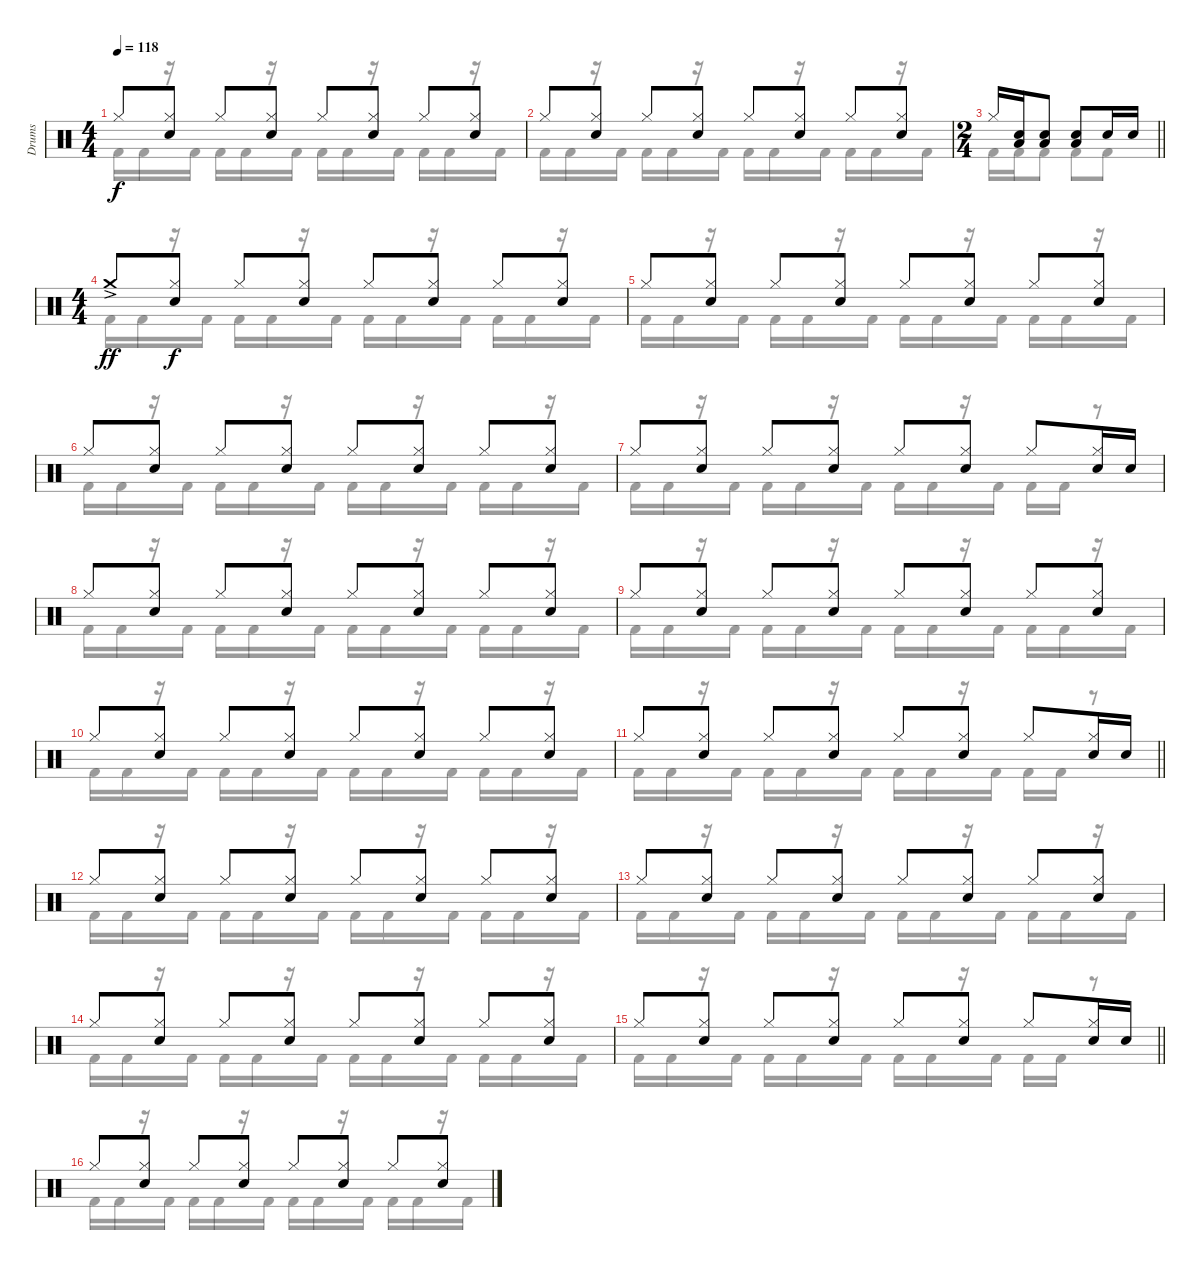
\track ("Drums" "Drums") {instrument percussion}
\staff {score}
\articulation defaults
\voice
\ts (4 4)
\tempo 118
\clef neutral
\ks c "Hi-Hat (closed)".8{dy f}
("Hi-Hat (closed)" "Snare (hit) 2").8 "Hi-Hat (closed)".8 ("Hi-Hat (closed)" "Snare (hit) 2").8 "Hi-Hat (closed)".8 ("Hi-Hat (closed)" "Snare (hit) 2").8 "Hi-Hat (closed)".8 ("Hi-Hat (closed)" "Snare (hit) 2").8 |
"Hi-Hat (closed)".8 ("Hi-Hat (closed)" "Snare (hit) 2").8 "Hi-Hat (closed)".8 ("Hi-Hat (closed)" "Snare (hit) 2").8 "Hi-Hat (closed)".8 ("Hi-Hat (closed)" "Snare (hit) 2").8 "Hi-Hat (closed)".8 ("Hi-Hat (closed)" "Snare (hit) 2").8 |
\ts (2 4)
\barLineRight lightlight "Hi-Hat (closed)".16
("Snare (hit) 2" "Low Floor Tom (hit)").16 ("Snare (hit) 2" "Low Floor Tom (hit)").8 ("Snare (hit) 2" "Low Floor Tom (hit)").8 "Snare (hit) 2".16 "Snare (hit) 2".16 |
\ts (4 4)
"Crash medium (hit)"{ac}.8{dy ff} ("Hi-Hat (closed)" "Snare (hit) 2").8{dy f} "Hi-Hat (closed)".8 ("Hi-Hat (closed)" "Snare (hit) 2").8 "Hi-Hat (closed)".8 ("Hi-Hat (closed)" "Snare (hit) 2").8 "Hi-Hat (closed)".8 ("Hi-Hat (closed)" "Snare (hit) 2").8 |
"Hi-Hat (closed)".8 ("Hi-Hat (closed)" "Snare (hit) 2").8 "Hi-Hat (closed)".8 ("Hi-Hat (closed)" "Snare (hit) 2").8 "Hi-Hat (closed)".8 ("Hi-Hat (closed)" "Snare (hit) 2").8 "Hi-Hat (closed)".8 ("Hi-Hat (closed)" "Snare (hit) 2").8 |
"Hi-Hat (closed)".8 ("Hi-Hat (closed)" "Snare (hit) 2").8 "Hi-Hat (closed)".8 ("Hi-Hat (closed)" "Snare (hit) 2").8 "Hi-Hat (closed)".8 ("Hi-Hat (closed)" "Snare (hit) 2").8 "Hi-Hat (closed)".8 ("Hi-Hat (closed)" "Snare (hit) 2").8 |
"Hi-Hat (closed)".8 ("Hi-Hat (closed)" "Snare (hit) 2").8 "Hi-Hat (closed)".8 ("Hi-Hat (closed)" "Snare (hit) 2").8 "Hi-Hat (closed)".8 ("Hi-Hat (closed)" "Snare (hit) 2").8 "Hi-Hat (closed)".8 ("Hi-Hat (closed)" "Snare (hit) 2").16 "Snare (hit) 2".16 |
"Hi-Hat (closed)".8 ("Hi-Hat (closed)" "Snare (hit) 2").8 "Hi-Hat (closed)".8 ("Hi-Hat (closed)" "Snare (hit) 2").8 "Hi-Hat (closed)".8 ("Hi-Hat (closed)" "Snare (hit) 2").8 "Hi-Hat (closed)".8 ("Hi-Hat (closed)" "Snare (hit) 2").8 |
"Hi-Hat (closed)".8 ("Hi-Hat (closed)" "Snare (hit) 2").8 "Hi-Hat (closed)".8 ("Hi-Hat (closed)" "Snare (hit) 2").8 "Hi-Hat (closed)".8 ("Hi-Hat (closed)" "Snare (hit) 2").8 "Hi-Hat (closed)".8 ("Hi-Hat (closed)" "Snare (hit) 2").8 |
"Hi-Hat (closed)".8 ("Hi-Hat (closed)" "Snare (hit) 2").8 "Hi-Hat (closed)".8 ("Hi-Hat (closed)" "Snare (hit) 2").8 "Hi-Hat (closed)".8 ("Hi-Hat (closed)" "Snare (hit) 2").8 "Hi-Hat (closed)".8 ("Hi-Hat (closed)" "Snare (hit) 2").8 |
\barLineRight lightlight "Hi-Hat (closed)".8
("Hi-Hat (closed)" "Snare (hit) 2").8 "Hi-Hat (closed)".8 ("Hi-Hat (closed)" "Snare (hit) 2").8 "Hi-Hat (closed)".8 ("Hi-Hat (closed)" "Snare (hit) 2").8 "Hi-Hat (closed)".8 ("Hi-Hat (closed)" "Snare (hit) 2").16 "Snare (hit) 2".16 |
"Hi-Hat (closed)".8 ("Hi-Hat (closed)" "Snare (hit) 2").8 "Hi-Hat (closed)".8 ("Hi-Hat (closed)" "Snare (hit) 2").8 "Hi-Hat (closed)".8 ("Hi-Hat (closed)" "Snare (hit) 2").8 "Hi-Hat (closed)".8 ("Hi-Hat (closed)" "Snare (hit) 2").8 |
"Hi-Hat (closed)".8 ("Hi-Hat (closed)" "Snare (hit) 2").8 "Hi-Hat (closed)".8 ("Hi-Hat (closed)" "Snare (hit) 2").8 "Hi-Hat (closed)".8 ("Hi-Hat (closed)" "Snare (hit) 2").8 "Hi-Hat (closed)".8 ("Hi-Hat (closed)" "Snare (hit) 2").8 |
"Hi-Hat (closed)".8 ("Hi-Hat (closed)" "Snare (hit) 2").8 "Hi-Hat (closed)".8 ("Hi-Hat (closed)" "Snare (hit) 2").8 "Hi-Hat (closed)".8 ("Hi-Hat (closed)" "Snare (hit) 2").8 "Hi-Hat (closed)".8 ("Hi-Hat (closed)" "Snare (hit) 2").8 |
\barLineRight lightlight "Hi-Hat (closed)".8
("Hi-Hat (closed)" "Snare (hit) 2").8 "Hi-Hat (closed)".8 ("Hi-Hat (closed)" "Snare (hit) 2").8 "Hi-Hat (closed)".8 ("Hi-Hat (closed)" "Snare (hit) 2").8 "Hi-Hat (closed)".8 ("Hi-Hat (closed)" "Snare (hit) 2").16 "Snare (hit) 2".16 |
"Hi-Hat (closed)".8 ("Hi-Hat (closed)" "Snare (hit) 2").8 "Hi-Hat (closed)".8 ("Hi-Hat (closed)" "Snare (hit) 2").8 "Hi-Hat (closed)".8 ("Hi-Hat (closed)" "Snare (hit) 2").8 "Hi-Hat (closed)".8 ("Hi-Hat (closed)" "Snare (hit) 2").8
\voice
\clef neutral
\ottava regular
\simile none
\ks c "Kick (hit) 2".16{dy f} "Kick (hit) 2".16
r.16 "Kick (hit) 2".16 "Kick (hit) 2".16 "Kick (hit) 2".16 r.16 "Kick (hit) 2".16 "Kick (hit) 2".16 "Kick (hit) 2".16 r.16 "Kick (hit) 2".16 "Kick (hit) 2".16 "Kick (hit) 2".16 r.16 "Kick (hit) 2".16 |
"Kick (hit) 2".16 "Kick (hit) 2".16 r.16 "Kick (hit) 2".16 "Kick (hit) 2".16 "Kick (hit) 2".16 r.16 "Kick (hit) 2".16 "Kick (hit) 2".16 "Kick (hit) 2".16 r.16 "Kick (hit) 2".16 "Kick (hit) 2".16 "Kick (hit) 2".16 r.16 "Kick (hit) 2".16 |
\barLineRight lightlight "Kick (hit) 2".16 "Kick (hit) 2".16 "Kick (hit) 2".8 "Kick (hit) 2".8 "Kick (hit) 2".8
|
"Kick (hit) 2".16 "Kick (hit) 2".16 r.16 "Kick (hit) 2".16 "Kick (hit) 2".16 "Kick (hit) 2".16 r.16 "Kick (hit) 2".16 "Kick (hit) 2".16 "Kick (hit) 2".16 r.16 "Kick (hit) 2".16 "Kick (hit) 2".16 "Kick (hit) 2".16 r.16 "Kick (hit) 2".16 |
"Kick (hit) 2".16 "Kick (hit) 2".16 r.16 "Kick (hit) 2".16 "Kick (hit) 2".16 "Kick (hit) 2".16 r.16 "Kick (hit) 2".16 "Kick (hit) 2".16 "Kick (hit) 2".16 r.16 "Kick (hit) 2".16 "Kick (hit) 2".16 "Kick (hit) 2".16 r.16 "Kick (hit) 2".16 |
"Kick (hit) 2".16 "Kick (hit) 2".16 r.16 "Kick (hit) 2".16 "Kick (hit) 2".16 "Kick (hit) 2".16 r.16 "Kick (hit) 2".16 "Kick (hit) 2".16 "Kick (hit) 2".16 r.16 "Kick (hit) 2".16 "Kick (hit) 2".16 "Kick (hit) 2".16 r.16 "Kick (hit) 2".16 |
"Kick (hit) 2".16 "Kick (hit) 2".16 r.16 "Kick (hit) 2".16 "Kick (hit) 2".16 "Kick (hit) 2".16 r.16 "Kick (hit) 2".16 "Kick (hit) 2".16 "Kick (hit) 2".16 r.16 "Kick (hit) 2".16 "Kick (hit) 2".16 "Kick (hit) 2".16 r.8 |
"Kick (hit) 2".16 "Kick (hit) 2".16 r.16 "Kick (hit) 2".16 "Kick (hit) 2".16 "Kick (hit) 2".16 r.16 "Kick (hit) 2".16 "Kick (hit) 2".16 "Kick (hit) 2".16 r.16 "Kick (hit) 2".16 "Kick (hit) 2".16 "Kick (hit) 2".16 r.16 "Kick (hit) 2".16 |
"Kick (hit) 2".16 "Kick (hit) 2".16 r.16 "Kick (hit) 2".16 "Kick (hit) 2".16 "Kick (hit) 2".16 r.16 "Kick (hit) 2".16 "Kick (hit) 2".16 "Kick (hit) 2".16 r.16 "Kick (hit) 2".16 "Kick (hit) 2".16 "Kick (hit) 2".16 r.16 "Kick (hit) 2".16 |
"Kick (hit) 2".16 "Kick (hit) 2".16 r.16 "Kick (hit) 2".16 "Kick (hit) 2".16 "Kick (hit) 2".16 r.16 "Kick (hit) 2".16 "Kick (hit) 2".16 "Kick (hit) 2".16 r.16 "Kick (hit) 2".16 "Kick (hit) 2".16 "Kick (hit) 2".16 r.16 "Kick (hit) 2".16 |
\barLineRight lightlight "Kick (hit) 2".16 "Kick (hit) 2".16
r.16 "Kick (hit) 2".16 "Kick (hit) 2".16 "Kick (hit) 2".16 r.16 "Kick (hit) 2".16 "Kick (hit) 2".16 "Kick (hit) 2".16 r.16 "Kick (hit) 2".16 "Kick (hit) 2".16 "Kick (hit) 2".16 r.8 |
"Kick (hit) 2".16 "Kick (hit) 2".16 r.16 "Kick (hit) 2".16 "Kick (hit) 2".16 "Kick (hit) 2".16 r.16 "Kick (hit) 2".16 "Kick (hit) 2".16 "Kick (hit) 2".16 r.16 "Kick (hit) 2".16 "Kick (hit) 2".16 "Kick (hit) 2".16 r.16 "Kick (hit) 2".16 |
"Kick (hit) 2".16 "Kick (hit) 2".16 r.16 "Kick (hit) 2".16 "Kick (hit) 2".16 "Kick (hit) 2".16 r.16 "Kick (hit) 2".16 "Kick (hit) 2".16 "Kick (hit) 2".16 r.16 "Kick (hit) 2".16 "Kick (hit) 2".16 "Kick (hit) 2".16 r.16 "Kick (hit) 2".16 |
"Kick (hit) 2".16 "Kick (hit) 2".16 r.16 "Kick (hit) 2".16 "Kick (hit) 2".16 "Kick (hit) 2".16 r.16 "Kick (hit) 2".16 "Kick (hit) 2".16 "Kick (hit) 2".16 r.16 "Kick (hit) 2".16 "Kick (hit) 2".16 "Kick (hit) 2".16 r.16 "Kick (hit) 2".16 |
\barLineRight lightlight "Kick (hit) 2".16 "Kick (hit) 2".16
r.16 "Kick (hit) 2".16 "Kick (hit) 2".16 "Kick (hit) 2".16 r.16 "Kick (hit) 2".16 "Kick (hit) 2".16 "Kick (hit) 2".16 r.16 "Kick (hit) 2".16 "Kick (hit) 2".16 "Kick (hit) 2".16 r.8 |
"Kick (hit) 2".16 "Kick (hit) 2".16 r.16 "Kick (hit) 2".16 "Kick (hit) 2".16 "Kick (hit) 2".16 r.16 "Kick (hit) 2".16 "Kick (hit) 2".16 "Kick (hit) 2".16 r.16 "Kick (hit) 2".16 "Kick (hit) 2".16 "Kick (hit) 2".16 r.16 "Kick (hit) 2".16
